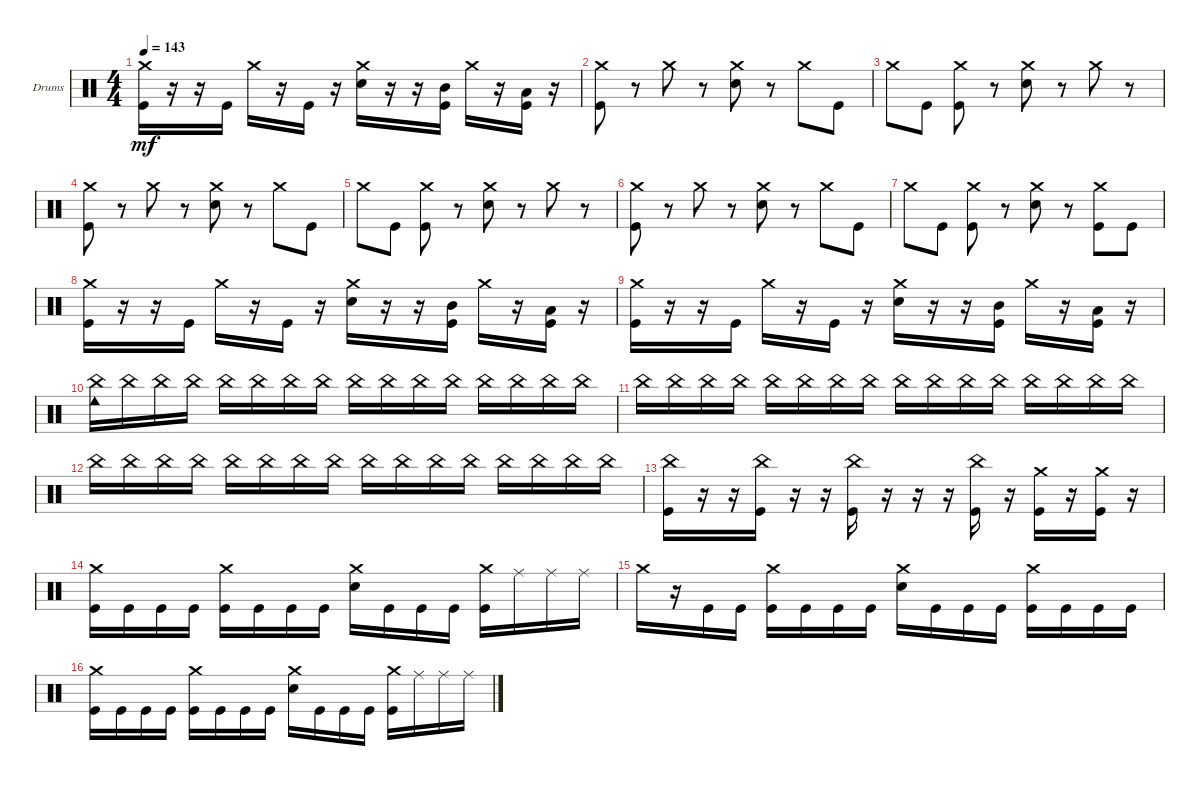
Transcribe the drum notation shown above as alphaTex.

\defaultSystemsLayout 4
\bracketExtendMode groupsimilarinstruments
\firstSystemTrackNameOrientation horizontal
\otherSystemsTrackNameOrientation horizontal
\track ("Drumkit" "Drums") {instrument percussion}
\staff {score}
\articulation defaults
\ts (4 4)
\tempo 143
\clef neutral
\scale
0.333333
\ks c
("Kick (hit)" "Crash medium (hit)").16{dy mf} r.16 r.16 "Kick (hit)".16 "Crash medium (hit)".16 r.16 "Kick (hit)".16 r.16 ("Snare (hit) 2" "Crash medium (hit)").16 r.16 r.16 ("Kick (hit)" "Mid Tom (hit)").16 "Crash medium (hit)".16 r.16 ("Kick (hit)" "Low Tom (hit)").16 r.16 |
\scale
0.333333 ("Kick (hit)" "Crash medium (hit)").8 r.8 "Crash medium (hit)".8 r.8 ("Snare (hit) 2" "Crash medium (hit)").8 r.8 "Crash medium (hit)".8 "Kick (hit)".8 |
\scale
0.333333 "Crash medium (hit)".8 "Kick (hit)".8 ("Kick (hit)" "Crash medium (hit)").8 r.8 ("Snare (hit) 2" "Crash medium (hit)").8 r.8 "Crash medium (hit)".8 r.8 |
\scale
0.333333 ("Kick (hit)" "Crash medium (hit)").8 r.8 "Crash medium (hit)".8 r.8 ("Snare (hit) 2" "Crash medium (hit)").8 r.8 "Crash medium (hit)".8 "Kick (hit)".8 |
\scale
0.333333 "Crash medium (hit)".8 "Kick (hit)".8 ("Kick (hit)" "Crash medium (hit)").8 r.8 ("Snare (hit) 2" "Crash medium (hit)").8 r.8 "Crash medium (hit)".8 r.8 |
\scale
0.333333 ("Kick (hit)" "Crash medium (hit)").8 r.8 "Crash medium (hit)".8 r.8 ("Snare (hit) 2" "Crash medium (hit)").8 r.8 "Crash medium (hit)".8 "Kick (hit)".8 |
\scale
0.333333 "Crash medium (hit)".8 "Kick (hit)".8 ("Kick (hit)" "Crash medium (hit)").8 r.8 ("Snare (hit) 2" "Crash medium (hit)").8 r.8 ("Crash medium (hit)" "Kick (hit)").8 "Kick (hit)".8 |
\scale
0.333333 ("Kick (hit)" "Crash medium (hit)").16 r.16 r.16 "Kick (hit)".16 "Crash medium (hit)".16 r.16 "Kick (hit)".16 r.16 ("Snare (hit) 2" "Crash medium (hit)").16 r.16 r.16 ("Kick (hit)" "Mid Tom (hit)").16 "Crash medium (hit)".16 r.16 ("Kick (hit)" "Low Tom (hit)").16 r.16 |
\scale
0.333333 ("Kick (hit)" "Crash medium (hit)").16 r.16 r.16 "Kick (hit)".16 "Crash medium (hit)".16 r.16 "Kick (hit)".16 r.16 ("Snare (hit) 2" "Crash medium (hit)").16 r.16 r.16 ("Kick (hit)" "Mid Tom (hit)").16 "Crash medium (hit)".16 r.16 ("Kick (hit)" "Low Tom (hit)").16 r.16 |
\scale
0.333333 ("Cowbell low (hit)" "China (hit)").16 "China (hit)".16 "China (hit)".16 "China (hit)".16 "China (hit)".16 "China (hit)".16 "China (hit)".16 "China (hit)".16 "China (hit)".16 "China (hit)".16 "China (hit)".16 "China (hit)".16 "China (hit)".16 "China (hit)".16 "China (hit)".16 "China (hit)".16 |
\scale
0.333333 "China (hit)".16 "China (hit)".16 "China (hit)".16 "China (hit)".16 "China (hit)".16 "China (hit)".16 "China (hit)".16 "China (hit)".16 "China (hit)".16 "China (hit)".16 "China (hit)".16 "China (hit)".16 "China (hit)".16 "China (hit)".16 "China (hit)".16 "China (hit)".16 |
\scale
0.333333 "China (hit)".16 "China (hit)".16 "China (hit)".16 "China (hit)".16 "China (hit)".16 "China (hit)".16 "China (hit)".16 "China (hit)".16 "China (hit)".16 "China (hit)".16 "China (hit)".16 "China (hit)".16 "China (hit)".16 "China (hit)".16 "China (hit)".16 "China (hit)".16 |
\scale
0.333333 ("Kick (hit)" "China (hit)").16 r.16 r.16 ("Kick (hit)" "China (hit)").16 r.16 r.16 ("Kick (hit)" "China (hit)").16 r.16 r.16 r.16 ("Kick (hit)" "China (hit)").16 r.16 ("Kick (hit)" "Crash medium (hit)").16 r.16 ("Kick (hit)" "Crash medium (hit)").16 r.16 |
\scale
0.333333 ("Kick (hit)" "Crash medium (hit)").16 "Kick (hit)".16 "Kick (hit)".16 "Kick (hit)".16 ("Kick (hit)" "Crash medium (hit)").16 "Kick (hit)".16 "Kick (hit)".16 "Kick (hit)".16 ("Snare (hit) 2" "Crash medium (hit)").16 "Kick (hit)".16 "Kick (hit)".16 "Kick (hit)".16 ("Kick (hit)" "Crash medium (hit)").16 "Ride (middle)".16 "Ride (middle)".16 "Ride (middle)".16 |
\scale
0.333333 "Crash medium (hit)".16 r.16 "Kick (hit)".16 "Kick (hit)".16 ("Kick (hit)" "Crash medium (hit)").16 "Kick (hit)".16 "Kick (hit)".16 "Kick (hit)".16 ("Snare (hit) 2" "Crash medium (hit)").16 "Kick (hit)".16 "Kick (hit)".16 "Kick (hit)".16 ("Kick (hit)" "Crash medium (hit)").16 "Kick (hit)".16 "Kick (hit)".16 "Kick (hit)".16 |
\scale
0.333333 ("Kick (hit)" "Crash medium (hit)").16 "Kick (hit)".16 "Kick (hit)".16 "Kick (hit)".16 ("Kick (hit)" "Crash medium (hit)").16 "Kick (hit)".16 "Kick (hit)".16 "Kick (hit)".16 ("Snare (hit) 2" "Crash medium (hit)").16 "Kick (hit)".16 "Kick (hit)".16 "Kick (hit)".16 ("Kick (hit)" "Crash medium (hit)").16 "Ride (middle)".16 "Ride (middle)".16 "Ride (middle)".16
